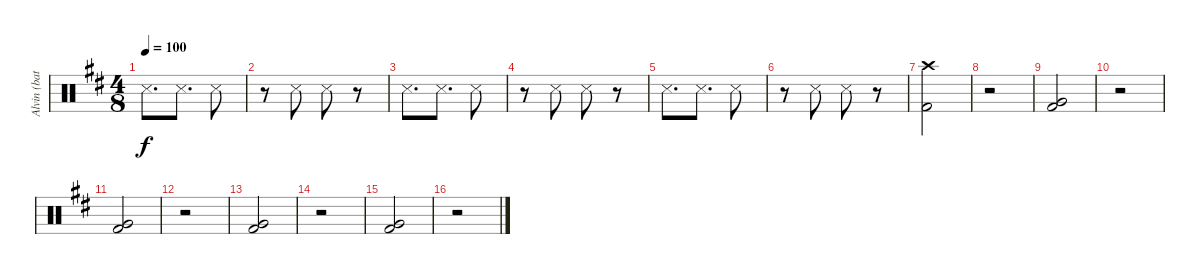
\track ("Alvin (bateria)" "Alvin (bat") {instrument percussion}
\staff {score}
\articulation defaults
\ts (4 8)
\tempo 100
\clef neutral
\ks bminor "Snare (side stick) 3".8{d dy f} "Snare (side stick) 3".8{d} "Snare (side stick) 3".8
|
r.8 "Snare (side stick) 3".8 "Snare (side stick) 3".8 r.8 |
"Snare (side stick) 3".8{d} "Snare (side stick) 3".8{d} "Snare (side stick) 3".8 |
r.8 "Snare (side stick) 3".8 "Snare (side stick) 3".8 r.8 |
"Snare (side stick) 3".8{d} "Snare (side stick) 3".8{d} "Snare (side stick) 3".8 |
r.8 "Snare (side stick) 3".8 "Snare (side stick) 3".8 r.8 |
("Crash high (hit)" "Kick (hit) 2").2 |
r.2 |
("Kick (hit) 2" "Very Low Tom (hit)").2 |
r.2 |
("Kick (hit) 2" "Very Low Tom (hit)").2 |
r.2 |
("Kick (hit) 2" "Very Low Tom (hit)").2 |
r.2 |
("Kick (hit) 2" "Very Low Tom (hit)").2 |
r.2
